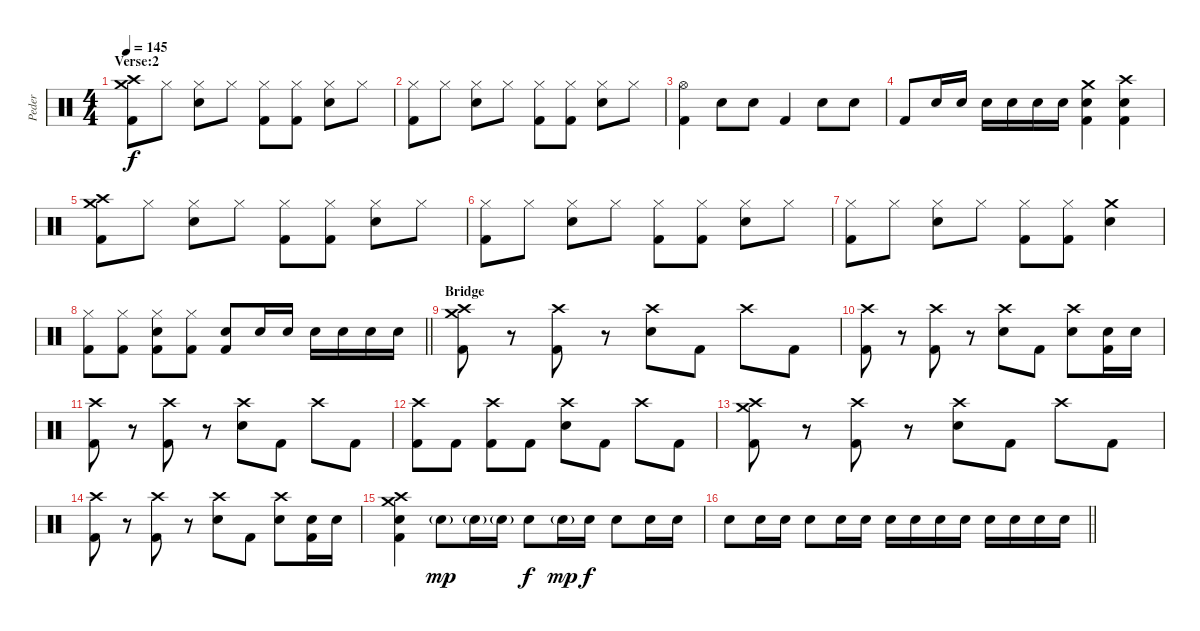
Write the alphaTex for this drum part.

\track ("Peder" "Peder") {instrument percussion}
\staff {score}
\articulation defaults
\ts (4 4)
\section ("" "Verse:2")
\tempo 145
\clef neutral
\ks c
("Crash medium (hit)" "Crash high (hit)" "Kick (hit) 2").8{dy f} "Hi-Hat (closed)".8 ("Hi-Hat (closed)" "Electric Snare (hit)").8 "Hi-Hat (closed)".8 ("Hi-Hat (closed)" "Kick (hit) 2").8 ("Hi-Hat (closed)" "Kick (hit) 2").8 ("Hi-Hat (closed)" "Electric Snare (hit)").8 "Hi-Hat (closed)".8 |
("Hi-Hat (closed)" "Kick (hit) 2").8 "Hi-Hat (closed)".8 ("Hi-Hat (closed)" "Electric Snare (hit)").8 "Hi-Hat (closed)".8 ("Hi-Hat (closed)" "Kick (hit) 2").8 ("Hi-Hat (closed)" "Kick (hit) 2").8 ("Hi-Hat (closed)" "Electric Snare (hit)").8 "Hi-Hat (closed)".8 |
("Hi-Hat (open)" "Kick (hit) 2").4 "Electric Snare (hit)".8 "Electric Snare (hit)".8 "Kick (hit) 2".4 "Electric Snare (hit)".8 "Electric Snare (hit)".8 |
"Kick (hit) 2".8 "Electric Snare (hit)".16 "Electric Snare (hit)".16 "Electric Snare (hit)".16 "Electric Snare (hit)".16 "Electric Snare (hit)".16 "Electric Snare (hit)".16 ("Crash medium (hit)" "Electric Snare (hit)" "Kick (hit) 2").4 ("Crash high (hit)" "Electric Snare (hit)" "Kick (hit) 2").4 |
("Crash medium (hit)" "Crash high (hit)" "Kick (hit) 2").8 "Hi-Hat (closed)".8 ("Hi-Hat (closed)" "Electric Snare (hit)").8 "Hi-Hat (closed)".8 ("Hi-Hat (closed)" "Kick (hit) 2").8 ("Hi-Hat (closed)" "Kick (hit) 2").8 ("Hi-Hat (closed)" "Electric Snare (hit)").8 "Hi-Hat (closed)".8 |
("Hi-Hat (closed)" "Kick (hit) 2").8 "Hi-Hat (closed)".8 ("Hi-Hat (closed)" "Electric Snare (hit)").8 "Hi-Hat (closed)".8 ("Hi-Hat (closed)" "Kick (hit) 2").8 ("Hi-Hat (closed)" "Kick (hit) 2").8 ("Hi-Hat (closed)" "Electric Snare (hit)").8 "Hi-Hat (closed)".8 |
("Hi-Hat (closed)" "Kick (hit) 2").8 "Hi-Hat (closed)".8 ("Hi-Hat (closed)" "Electric Snare (hit)").8 "Hi-Hat (closed)".8 ("Hi-Hat (closed)" "Kick (hit) 2").8 ("Hi-Hat (closed)" "Kick (hit) 2").8 ("Crash medium (hit)" "Electric Snare (hit)").4 |
\barLineRight lightlight
("Hi-Hat (closed)" "Kick (hit) 2").8 ("Hi-Hat (closed)" "Kick (hit) 2").8 ("Hi-Hat (closed)" "Electric Snare (hit)" "Kick (hit) 2").8 ("Hi-Hat (closed)" "Kick (hit) 2").8 ("Electric Snare (hit)" "Kick (hit) 2").8 "Electric Snare (hit)".16 "Electric Snare (hit)".16 "Electric Snare (hit)".16 "Electric Snare (hit)".16 "Electric Snare (hit)".16 "Electric Snare (hit)".16 |
\section ("" "Bridge")
("Crash medium (hit)" "Crash high (hit)" "Kick (hit) 2").8 r.8 ("Crash high (hit)" "Kick (hit) 2").8 r.8 ("Crash high (hit)" "Electric Snare (hit)").8 "Kick (hit) 2".8 "Crash high (hit)".8 "Kick (hit) 2".8 |
("Crash high (hit)" "Kick (hit) 2").8 r.8 ("Crash high (hit)" "Kick (hit) 2").8 r.8 ("Crash high (hit)" "Electric Snare (hit)").8 "Kick (hit) 2".8 ("Crash high (hit)" "Electric Snare (hit)").8 ("Electric Snare (hit)" "Kick (hit) 2").16 "Electric Snare (hit)".16 |
("Crash high (hit)" "Kick (hit) 2").8 r.8 ("Crash high (hit)" "Kick (hit) 2").8 r.8 ("Crash high (hit)" "Electric Snare (hit)").8 "Kick (hit) 2".8 "Crash high (hit)".8 "Kick (hit) 2".8 |
("Crash high (hit)" "Kick (hit) 2").8 "Kick (hit) 2".8 ("Crash high (hit)" "Kick (hit) 2").8 "Kick (hit) 2".8 ("Crash high (hit)" "Electric Snare (hit)").8 "Kick (hit) 2".8 "Crash high (hit)".8 "Kick (hit) 2".8 |
("Crash medium (hit)" "Crash high (hit)" "Kick (hit) 2").8 r.8 ("Crash high (hit)" "Kick (hit) 2").8 r.8 ("Crash high (hit)" "Electric Snare (hit)").8 "Kick (hit) 2".8 "Crash high (hit)".8 "Kick (hit) 2".8 |
("Crash high (hit)" "Kick (hit) 2").8 r.8 ("Crash high (hit)" "Kick (hit) 2").8 r.8 ("Crash high (hit)" "Electric Snare (hit)").8 "Kick (hit) 2".8 ("Crash high (hit)" "Electric Snare (hit)").8 ("Electric Snare (hit)" "Kick (hit) 2").16 "Electric Snare (hit)".16 |
("Crash medium (hit)" "Crash high (hit)" "Electric Snare (hit)" "Kick (hit) 2").4 "Electric Snare (hit)"{g}.8{dy mp} "Electric Snare (hit)"{g}.16 "Electric Snare (hit)"{g}.16 "Electric Snare (hit)".8{dy f} "Electric Snare (hit)"{g}.16{dy mp} "Electric Snare (hit)".16{dy f} "Electric Snare (hit)".8 "Electric Snare (hit)".16 "Electric Snare (hit)".16 |
\barLineRight lightlight "Electric Snare (hit)".8 "Electric Snare (hit)".16 "Electric Snare (hit)".16 "Electric Snare (hit)".8 "Electric Snare (hit)".16 "Electric Snare (hit)".16 "Electric Snare (hit)".16 "Electric Snare (hit)".16 "Electric Snare (hit)".16 "Electric Snare (hit)".16 "Electric Snare (hit)".16 "Electric Snare (hit)".16 "Electric Snare (hit)".16 "Electric Snare (hit)".16
